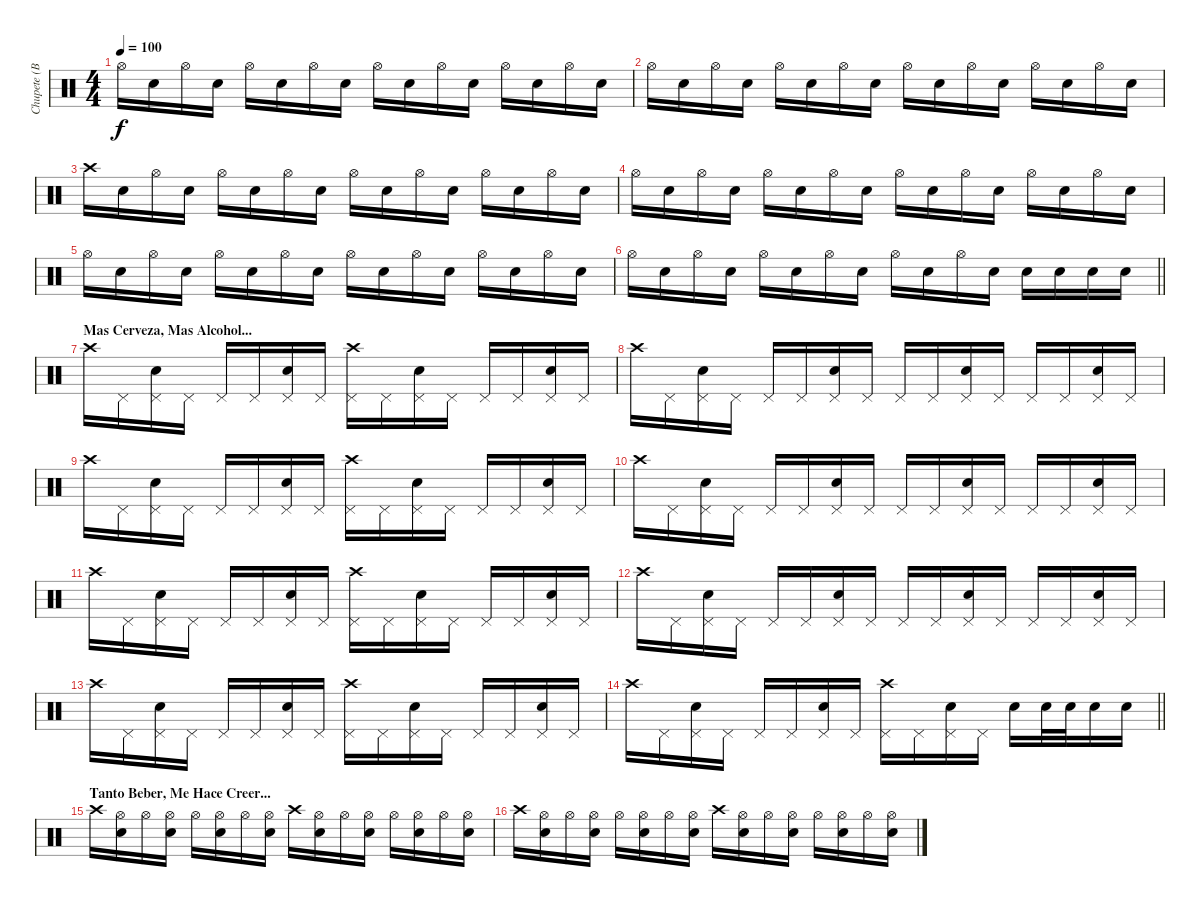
\track ("Chupete (Bateria)" "Chupete (B") {instrument percussion}
\staff {score}
\articulation defaults
\ts (4 4)
\tempo 100
\clef neutral
\ks c "Hi-Hat (open)".16{dy f} "Electric Snare (hit)".16 "Hi-Hat (open)".16 "Electric Snare (hit)".16 "Hi-Hat (open)".16 "Electric Snare (hit)".16 "Hi-Hat (open)".16 "Electric Snare (hit)".16 "Hi-Hat (open)".16 "Electric Snare (hit)".16 "Hi-Hat (open)".16 "Electric Snare (hit)".16 "Hi-Hat (open)".16 "Electric Snare (hit)".16 "Hi-Hat (open)".16 "Electric Snare (hit)".16
|
"Hi-Hat (open)".16 "Electric Snare (hit)".16 "Hi-Hat (open)".16 "Electric Snare (hit)".16 "Hi-Hat (open)".16 "Electric Snare (hit)".16 "Hi-Hat (open)".16 "Electric Snare (hit)".16 "Hi-Hat (open)".16 "Electric Snare (hit)".16 "Hi-Hat (open)".16 "Electric Snare (hit)".16 "Hi-Hat (open)".16 "Electric Snare (hit)".16 "Hi-Hat (open)".16 "Electric Snare (hit)".16 |
"Crash high (hit)".16 "Electric Snare (hit)".16 "Hi-Hat (open)".16 "Electric Snare (hit)".16 "Hi-Hat (open)".16 "Electric Snare (hit)".16 "Hi-Hat (open)".16 "Electric Snare (hit)".16 "Hi-Hat (open)".16 "Electric Snare (hit)".16 "Hi-Hat (open)".16 "Electric Snare (hit)".16 "Hi-Hat (open)".16 "Electric Snare (hit)".16 "Hi-Hat (open)".16 "Electric Snare (hit)".16 |
"Hi-Hat (open)".16 "Electric Snare (hit)".16 "Hi-Hat (open)".16 "Electric Snare (hit)".16 "Hi-Hat (open)".16 "Electric Snare (hit)".16 "Hi-Hat (open)".16 "Electric Snare (hit)".16 "Hi-Hat (open)".16 "Electric Snare (hit)".16 "Hi-Hat (open)".16 "Electric Snare (hit)".16 "Hi-Hat (open)".16 "Electric Snare (hit)".16 "Hi-Hat (open)".16 "Electric Snare (hit)".16 |
"Hi-Hat (open)".16 "Electric Snare (hit)".16 "Hi-Hat (open)".16 "Electric Snare (hit)".16 "Hi-Hat (open)".16 "Electric Snare (hit)".16 "Hi-Hat (open)".16 "Electric Snare (hit)".16 "Hi-Hat (open)".16 "Electric Snare (hit)".16 "Hi-Hat (open)".16 "Electric Snare (hit)".16 "Hi-Hat (open)".16 "Electric Snare (hit)".16 "Hi-Hat (open)".16 "Electric Snare (hit)".16 |
\barLineRight lightlight "Hi-Hat (open)".16 "Electric Snare (hit)".16 "Hi-Hat (open)".16 "Electric Snare (hit)".16 "Hi-Hat (open)".16 "Electric Snare (hit)".16 "Hi-Hat (open)".16 "Electric Snare (hit)".16 "Hi-Hat (open)".16 "Electric Snare (hit)".16 "Hi-Hat (open)".16 "Electric Snare (hit)".16 "Electric Snare (hit)".16 "Electric Snare (hit)".16 "Electric Snare (hit)".16 "Electric Snare (hit)".16
|
\section ("" "Mas Cerveza, Mas Alcohol...")
"Crash high (hit)".16 "Pedal Hi-Hat (hit)".16 ("Pedal Hi-Hat (hit)" "Electric Snare (hit)").16 "Pedal Hi-Hat (hit)".16 "Pedal Hi-Hat (hit)".16 "Pedal Hi-Hat (hit)".16 ("Pedal Hi-Hat (hit)" "Electric Snare (hit)").16 "Pedal Hi-Hat (hit)".16 ("Crash high (hit)" "Pedal Hi-Hat (hit)").16 "Pedal Hi-Hat (hit)".16 ("Pedal Hi-Hat (hit)" "Electric Snare (hit)").16 "Pedal Hi-Hat (hit)".16 "Pedal Hi-Hat (hit)".16 "Pedal Hi-Hat (hit)".16 ("Pedal Hi-Hat (hit)" "Electric Snare (hit)").16 "Pedal Hi-Hat (hit)".16 |
"Crash high (hit)".16 "Pedal Hi-Hat (hit)".16 ("Pedal Hi-Hat (hit)" "Electric Snare (hit)").16 "Pedal Hi-Hat (hit)".16 "Pedal Hi-Hat (hit)".16 "Pedal Hi-Hat (hit)".16 ("Pedal Hi-Hat (hit)" "Electric Snare (hit)").16 "Pedal Hi-Hat (hit)".16 "Pedal Hi-Hat (hit)".16 "Pedal Hi-Hat (hit)".16 ("Pedal Hi-Hat (hit)" "Electric Snare (hit)").16 "Pedal Hi-Hat (hit)".16 "Pedal Hi-Hat (hit)".16 "Pedal Hi-Hat (hit)".16 ("Pedal Hi-Hat (hit)" "Electric Snare (hit)").16 "Pedal Hi-Hat (hit)".16 |
"Crash high (hit)".16 "Pedal Hi-Hat (hit)".16 ("Pedal Hi-Hat (hit)" "Electric Snare (hit)").16 "Pedal Hi-Hat (hit)".16 "Pedal Hi-Hat (hit)".16 "Pedal Hi-Hat (hit)".16 ("Pedal Hi-Hat (hit)" "Electric Snare (hit)").16 "Pedal Hi-Hat (hit)".16 ("Crash high (hit)" "Pedal Hi-Hat (hit)").16 "Pedal Hi-Hat (hit)".16 ("Pedal Hi-Hat (hit)" "Electric Snare (hit)").16 "Pedal Hi-Hat (hit)".16 "Pedal Hi-Hat (hit)".16 "Pedal Hi-Hat (hit)".16 ("Pedal Hi-Hat (hit)" "Electric Snare (hit)").16 "Pedal Hi-Hat (hit)".16 |
"Crash high (hit)".16 "Pedal Hi-Hat (hit)".16 ("Pedal Hi-Hat (hit)" "Electric Snare (hit)").16 "Pedal Hi-Hat (hit)".16 "Pedal Hi-Hat (hit)".16 "Pedal Hi-Hat (hit)".16 ("Pedal Hi-Hat (hit)" "Electric Snare (hit)").16 "Pedal Hi-Hat (hit)".16 "Pedal Hi-Hat (hit)".16 "Pedal Hi-Hat (hit)".16 ("Pedal Hi-Hat (hit)" "Electric Snare (hit)").16 "Pedal Hi-Hat (hit)".16 "Pedal Hi-Hat (hit)".16 "Pedal Hi-Hat (hit)".16 ("Pedal Hi-Hat (hit)" "Electric Snare (hit)").16 "Pedal Hi-Hat (hit)".16 |
"Crash high (hit)".16 "Pedal Hi-Hat (hit)".16 ("Pedal Hi-Hat (hit)" "Electric Snare (hit)").16 "Pedal Hi-Hat (hit)".16 "Pedal Hi-Hat (hit)".16 "Pedal Hi-Hat (hit)".16 ("Pedal Hi-Hat (hit)" "Electric Snare (hit)").16 "Pedal Hi-Hat (hit)".16 ("Crash high (hit)" "Pedal Hi-Hat (hit)").16 "Pedal Hi-Hat (hit)".16 ("Pedal Hi-Hat (hit)" "Electric Snare (hit)").16 "Pedal Hi-Hat (hit)".16 "Pedal Hi-Hat (hit)".16 "Pedal Hi-Hat (hit)".16 ("Pedal Hi-Hat (hit)" "Electric Snare (hit)").16 "Pedal Hi-Hat (hit)".16 |
"Crash high (hit)".16 "Pedal Hi-Hat (hit)".16 ("Pedal Hi-Hat (hit)" "Electric Snare (hit)").16 "Pedal Hi-Hat (hit)".16 "Pedal Hi-Hat (hit)".16 "Pedal Hi-Hat (hit)".16 ("Pedal Hi-Hat (hit)" "Electric Snare (hit)").16 "Pedal Hi-Hat (hit)".16 "Pedal Hi-Hat (hit)".16 "Pedal Hi-Hat (hit)".16 ("Pedal Hi-Hat (hit)" "Electric Snare (hit)").16 "Pedal Hi-Hat (hit)".16 "Pedal Hi-Hat (hit)".16 "Pedal Hi-Hat (hit)".16 ("Pedal Hi-Hat (hit)" "Electric Snare (hit)").16 "Pedal Hi-Hat (hit)".16 |
"Crash high (hit)".16 "Pedal Hi-Hat (hit)".16 ("Pedal Hi-Hat (hit)" "Electric Snare (hit)").16 "Pedal Hi-Hat (hit)".16 "Pedal Hi-Hat (hit)".16 "Pedal Hi-Hat (hit)".16 ("Pedal Hi-Hat (hit)" "Electric Snare (hit)").16 "Pedal Hi-Hat (hit)".16 ("Crash high (hit)" "Pedal Hi-Hat (hit)").16 "Pedal Hi-Hat (hit)".16 ("Pedal Hi-Hat (hit)" "Electric Snare (hit)").16 "Pedal Hi-Hat (hit)".16 "Pedal Hi-Hat (hit)".16 "Pedal Hi-Hat (hit)".16 ("Pedal Hi-Hat (hit)" "Electric Snare (hit)").16 "Pedal Hi-Hat (hit)".16 |
\barLineRight lightlight "Crash high (hit)".16 "Pedal Hi-Hat (hit)".16
("Pedal Hi-Hat (hit)" "Electric Snare (hit)").16 "Pedal Hi-Hat (hit)".16 "Pedal Hi-Hat (hit)".16 "Pedal Hi-Hat (hit)".16 ("Pedal Hi-Hat (hit)" "Electric Snare (hit)").16 "Pedal Hi-Hat (hit)".16 ("Crash high (hit)" "Pedal Hi-Hat (hit)").16 "Pedal Hi-Hat (hit)".16 ("Pedal Hi-Hat (hit)" "Electric Snare (hit)").16 "Pedal Hi-Hat (hit)".16 "Electric Snare (hit)".16 "Electric Snare (hit)".32 "Electric Snare (hit)".32 "Electric Snare (hit)".16 "Electric Snare (hit)".16 |
\section ("" "Tanto Beber, Me Hace Creer...")
"Crash high (hit)".16 ("Hi-Hat (open)" "Electric Snare (hit)").16 "Hi-Hat (open)".16 ("Hi-Hat (open)" "Electric Snare (hit)").16 "Hi-Hat (open)".16 ("Hi-Hat (open)" "Electric Snare (hit)").16 "Hi-Hat (open)".16 ("Hi-Hat (open)" "Electric Snare (hit)").16 "Crash high (hit)".16 ("Hi-Hat (open)" "Electric Snare (hit)").16 "Hi-Hat (open)".16 ("Hi-Hat (open)" "Electric Snare (hit)").16 "Hi-Hat (open)".16 ("Hi-Hat (open)" "Electric Snare (hit)").16 "Hi-Hat (open)".16 ("Hi-Hat (open)" "Electric Snare (hit)").16 |
"Crash high (hit)".16 ("Hi-Hat (open)" "Electric Snare (hit)").16 "Hi-Hat (open)".16 ("Hi-Hat (open)" "Electric Snare (hit)").16 "Hi-Hat (open)".16 ("Hi-Hat (open)" "Electric Snare (hit)").16 "Hi-Hat (open)".16 ("Hi-Hat (open)" "Electric Snare (hit)").16 "Crash high (hit)".16 ("Hi-Hat (open)" "Electric Snare (hit)").16 "Hi-Hat (open)".16 ("Hi-Hat (open)" "Electric Snare (hit)").16 "Hi-Hat (open)".16 ("Hi-Hat (open)" "Electric Snare (hit)").16 "Hi-Hat (open)".16 ("Hi-Hat (open)" "Electric Snare (hit)").16
